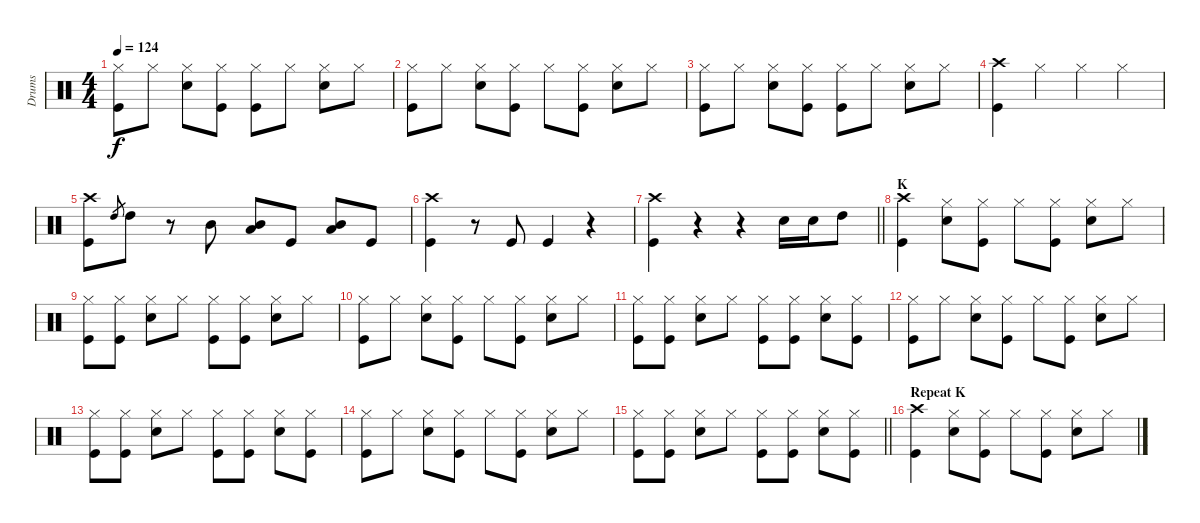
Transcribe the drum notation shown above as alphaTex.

\track ("Drums" "Drums") {instrument percussion}
\staff {score}
\articulation defaults
\ts (4 4)
\tempo 124
\clef neutral
\ks c
("Hi-Hat (closed)" "Kick (hit)").8{dy f} "Hi-Hat (closed)".8 ("Hi-Hat (closed)" "Electric Snare (hit)").8 ("Hi-Hat (closed)" "Kick (hit)").8 ("Hi-Hat (closed)" "Kick (hit)").8 "Hi-Hat (closed)".8 ("Hi-Hat (closed)" "Electric Snare (hit)").8 "Hi-Hat (closed)".8 |
("Hi-Hat (closed)" "Kick (hit)").8 "Hi-Hat (closed)".8 ("Hi-Hat (closed)" "Electric Snare (hit)").8 ("Hi-Hat (closed)" "Kick (hit)").8 "Hi-Hat (closed)".8 ("Hi-Hat (closed)" "Kick (hit)").8 ("Hi-Hat (closed)" "Electric Snare (hit)").8 "Hi-Hat (closed)".8 |
("Hi-Hat (closed)" "Kick (hit)").8 "Hi-Hat (closed)".8 ("Hi-Hat (closed)" "Electric Snare (hit)").8 ("Hi-Hat (closed)" "Kick (hit)").8 ("Hi-Hat (closed)" "Kick (hit)").8 "Hi-Hat (closed)".8 ("Hi-Hat (closed)" "Electric Snare (hit)").8 "Hi-Hat (closed)".8 |
("Crash high (hit)" "Kick (hit)").4 "Hi-Hat (closed)".4 "Hi-Hat (closed)".4 "Hi-Hat (closed)".4 |
("Crash high (hit)" "Kick (hit)").8 "High Tom (hit)".8{gr} "High Tom (hit)".8 r.8 "Mid Tom (hit)".8 ("Mid Tom (hit)" "Low Tom (hit)").8 "Kick (hit)".8 ("Mid Tom (hit)" "Low Tom (hit)").8 "Kick (hit)".8 |
("Crash high (hit)" "Kick (hit)").4 r.8 "Kick (hit)".8 "Kick (hit)".4 r.4 |
\barLineRight lightlight
("Crash high (hit)" "Kick (hit)").4 r.4 r.4 "Electric Snare (hit)".16 "Electric Snare (hit)".16 "High Tom (hit)".8 |
\section ("" "K")
("Crash high (hit)" "Kick (hit)").4 ("Hi-Hat (closed)" "Electric Snare (hit)").8 ("Hi-Hat (closed)" "Kick (hit)").8 "Hi-Hat (closed)".8 ("Hi-Hat (closed)" "Kick (hit)").8 ("Hi-Hat (closed)" "Electric Snare (hit)").8 "Hi-Hat (closed)".8 |
("Hi-Hat (closed)" "Kick (hit)").8 ("Hi-Hat (closed)" "Kick (hit)").8 ("Hi-Hat (closed)" "Electric Snare (hit)").8 "Hi-Hat (closed)".8 ("Hi-Hat (closed)" "Kick (hit)").8 ("Hi-Hat (closed)" "Kick (hit)").8 ("Hi-Hat (closed)" "Electric Snare (hit)").8 "Hi-Hat (closed)".8 |
("Hi-Hat (closed)" "Kick (hit)").8 "Hi-Hat (closed)".8 ("Hi-Hat (closed)" "Electric Snare (hit)").8 ("Hi-Hat (closed)" "Kick (hit)").8 "Hi-Hat (closed)".8 ("Hi-Hat (closed)" "Kick (hit)").8 ("Hi-Hat (closed)" "Electric Snare (hit)").8 "Hi-Hat (closed)".8 |
("Hi-Hat (closed)" "Kick (hit)").8 ("Hi-Hat (closed)" "Kick (hit)").8 ("Hi-Hat (closed)" "Electric Snare (hit)").8 "Hi-Hat (closed)".8 ("Hi-Hat (closed)" "Kick (hit)").8 ("Hi-Hat (closed)" "Kick (hit)").8 ("Hi-Hat (closed)" "Electric Snare (hit)").8 ("Hi-Hat (closed)" "Kick (hit)").8 |
("Hi-Hat (closed)" "Kick (hit)").8 "Hi-Hat (closed)".8 ("Hi-Hat (closed)" "Electric Snare (hit)").8 ("Hi-Hat (closed)" "Kick (hit)").8 "Hi-Hat (closed)".8 ("Hi-Hat (closed)" "Kick (hit)").8 ("Hi-Hat (closed)" "Electric Snare (hit)").8 "Hi-Hat (closed)".8 |
("Hi-Hat (closed)" "Kick (hit)").8 ("Hi-Hat (closed)" "Kick (hit)").8 ("Hi-Hat (closed)" "Electric Snare (hit)").8 "Hi-Hat (closed)".8 ("Hi-Hat (closed)" "Kick (hit)").8 ("Hi-Hat (closed)" "Kick (hit)").8 ("Hi-Hat (closed)" "Electric Snare (hit)").8 ("Hi-Hat (closed)" "Kick (hit)").8 |
("Hi-Hat (closed)" "Kick (hit)").8 "Hi-Hat (closed)".8 ("Hi-Hat (closed)" "Electric Snare (hit)").8 ("Hi-Hat (closed)" "Kick (hit)").8 "Hi-Hat (closed)".8 ("Hi-Hat (closed)" "Kick (hit)").8 ("Hi-Hat (closed)" "Electric Snare (hit)").8 "Hi-Hat (closed)".8 |
\barLineRight lightlight
("Hi-Hat (closed)" "Kick (hit)").8 ("Hi-Hat (closed)" "Kick (hit)").8 ("Hi-Hat (closed)" "Electric Snare (hit)").8 "Hi-Hat (closed)".8 ("Hi-Hat (closed)" "Kick (hit)").8 ("Hi-Hat (closed)" "Kick (hit)").8 ("Hi-Hat (closed)" "Electric Snare (hit)").8 ("Hi-Hat (closed)" "Kick (hit)").8 |
\section ("" "Repeat K")
("Crash high (hit)" "Kick (hit)").4 ("Hi-Hat (closed)" "Electric Snare (hit)").8 ("Hi-Hat (closed)" "Kick (hit)").8 "Hi-Hat (closed)".8 ("Hi-Hat (closed)" "Kick (hit)").8 ("Hi-Hat (closed)" "Electric Snare (hit)").8 "Hi-Hat (closed)".8
